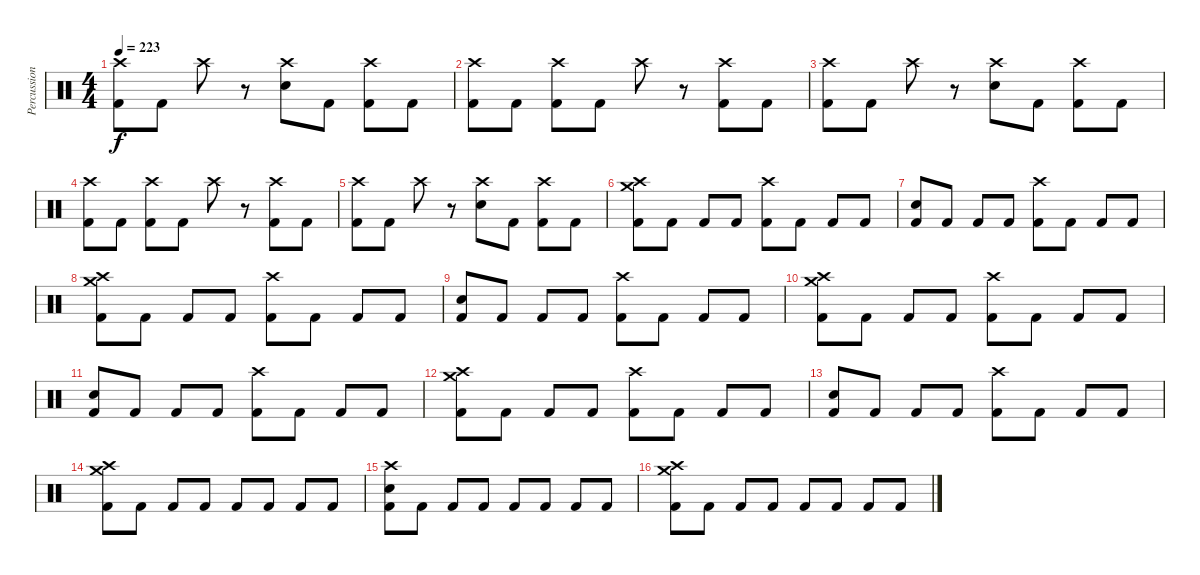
\track ("Percussion" "Percussion") {instrument percussion}
\staff {score}
\articulation defaults
\ts (4 4)
\tempo 223
\clef neutral
\ks c
("Crash high (hit)" "Kick (hit) 2").8{dy f} "Kick (hit) 2".8 "Crash high (hit)".8 r.8 ("Crash high (hit)" "Electric Snare (hit)").8 "Kick (hit) 2".8 ("Crash high (hit)" "Kick (hit) 2").8 "Kick (hit) 2".8 |
("Crash high (hit)" "Kick (hit) 2").8 "Kick (hit) 2".8 ("Crash high (hit)" "Kick (hit) 2").8 "Kick (hit) 2".8 "Crash high (hit)".8 r.8 ("Crash high (hit)" "Kick (hit) 2").8 "Kick (hit) 2".8 |
("Crash high (hit)" "Kick (hit) 2").8 "Kick (hit) 2".8 "Crash high (hit)".8 r.8 ("Crash high (hit)" "Electric Snare (hit)").8 "Kick (hit) 2".8 ("Crash high (hit)" "Kick (hit) 2").8 "Kick (hit) 2".8 |
("Crash high (hit)" "Kick (hit) 2").8 "Kick (hit) 2".8 ("Crash high (hit)" "Kick (hit) 2").8 "Kick (hit) 2".8 "Crash high (hit)".8 r.8 ("Crash high (hit)" "Kick (hit) 2").8 "Kick (hit) 2".8 |
("Crash high (hit)" "Kick (hit) 2").8 "Kick (hit) 2".8 "Crash high (hit)".8 r.8 ("Crash high (hit)" "Electric Snare (hit)").8 "Kick (hit) 2".8 ("Crash high (hit)" "Kick (hit) 2").8 "Kick (hit) 2".8 |
("Crash high (hit)" "Crash medium (hit)" "Kick (hit) 2").8 "Kick (hit) 2".8 "Kick (hit) 2".8 "Kick (hit) 2".8 ("Crash high (hit)" "Kick (hit) 2").8 "Kick (hit) 2".8 "Kick (hit) 2".8 "Kick (hit) 2".8 |
("Electric Snare (hit)" "Kick (hit) 2").8 "Kick (hit) 2".8 "Kick (hit) 2".8 "Kick (hit) 2".8 ("Crash high (hit)" "Kick (hit) 2").8 "Kick (hit) 2".8 "Kick (hit) 2".8 "Kick (hit) 2".8 |
("Crash high (hit)" "Crash medium (hit)" "Kick (hit) 2").8 "Kick (hit) 2".8 "Kick (hit) 2".8 "Kick (hit) 2".8 ("Crash high (hit)" "Kick (hit) 2").8 "Kick (hit) 2".8 "Kick (hit) 2".8 "Kick (hit) 2".8 |
("Electric Snare (hit)" "Kick (hit) 2").8 "Kick (hit) 2".8 "Kick (hit) 2".8 "Kick (hit) 2".8 ("Crash high (hit)" "Kick (hit) 2").8 "Kick (hit) 2".8 "Kick (hit) 2".8 "Kick (hit) 2".8 |
("Crash high (hit)" "Crash medium (hit)" "Kick (hit) 2").8 "Kick (hit) 2".8 "Kick (hit) 2".8 "Kick (hit) 2".8 ("Crash high (hit)" "Kick (hit) 2").8 "Kick (hit) 2".8 "Kick (hit) 2".8 "Kick (hit) 2".8 |
("Electric Snare (hit)" "Kick (hit) 2").8 "Kick (hit) 2".8 "Kick (hit) 2".8 "Kick (hit) 2".8 ("Crash high (hit)" "Kick (hit) 2").8 "Kick (hit) 2".8 "Kick (hit) 2".8 "Kick (hit) 2".8 |
("Crash high (hit)" "Crash medium (hit)" "Kick (hit) 2").8 "Kick (hit) 2".8 "Kick (hit) 2".8 "Kick (hit) 2".8 ("Crash high (hit)" "Kick (hit) 2").8 "Kick (hit) 2".8 "Kick (hit) 2".8 "Kick (hit) 2".8 |
("Electric Snare (hit)" "Kick (hit) 2").8 "Kick (hit) 2".8 "Kick (hit) 2".8 "Kick (hit) 2".8 ("Crash high (hit)" "Kick (hit) 2").8 "Kick (hit) 2".8 "Kick (hit) 2".8 "Kick (hit) 2".8 |
("Crash high (hit)" "Crash medium (hit)" "Kick (hit) 2").8 "Kick (hit) 2".8 "Kick (hit) 2".8 "Kick (hit) 2".8 "Kick (hit) 2".8 "Kick (hit) 2".8 "Kick (hit) 2".8 "Kick (hit) 2".8 |
("Crash high (hit)" "Electric Snare (hit)" "Kick (hit) 2").8 "Kick (hit) 2".8 "Kick (hit) 2".8 "Kick (hit) 2".8 "Kick (hit) 2".8 "Kick (hit) 2".8 "Kick (hit) 2".8 "Kick (hit) 2".8 |
("Crash high (hit)" "Crash medium (hit)" "Kick (hit) 2").8 "Kick (hit) 2".8 "Kick (hit) 2".8 "Kick (hit) 2".8 "Kick (hit) 2".8 "Kick (hit) 2".8 "Kick (hit) 2".8 "Kick (hit) 2".8
